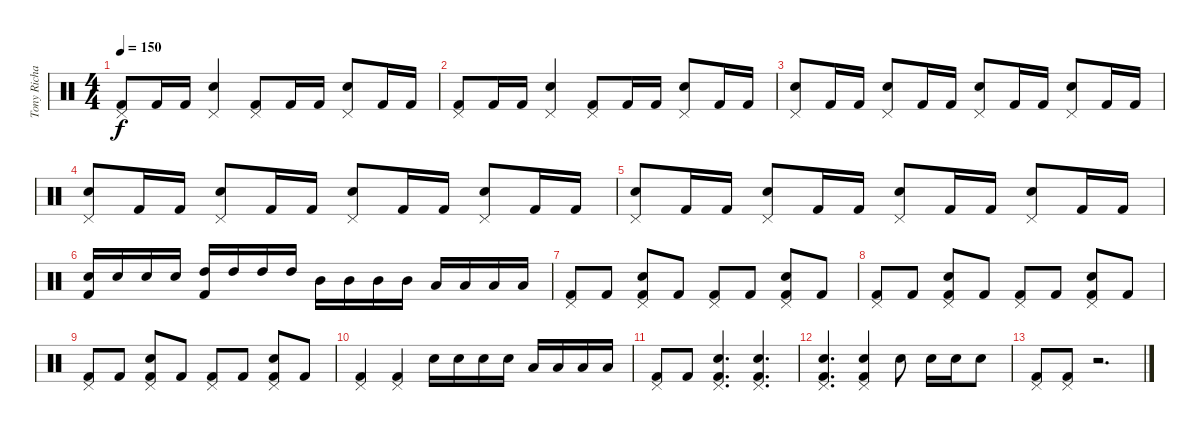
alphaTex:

\track ("Tony Richards (drums)" "Tony Richa") {instrument percussion}
\staff {score}
\articulation defaults
\ts (4 4)
\tempo 150
\clef neutral
\ks c
("Pedal Hi-Hat (hit)" "Kick (hit) 2").8{dy f} "Kick (hit) 2".16 "Kick (hit) 2".16 ("Pedal Hi-Hat (hit)" "Snare (hit) 2").4 ("Pedal Hi-Hat (hit)" "Kick (hit) 2").8 "Kick (hit) 2".16 "Kick (hit) 2".16 ("Pedal Hi-Hat (hit)" "Snare (hit) 2").8 "Kick (hit) 2".16 "Kick (hit) 2".16 |
("Pedal Hi-Hat (hit)" "Kick (hit) 2").8 "Kick (hit) 2".16 "Kick (hit) 2".16 ("Pedal Hi-Hat (hit)" "Snare (hit) 2").4 ("Pedal Hi-Hat (hit)" "Kick (hit) 2").8 "Kick (hit) 2".16 "Kick (hit) 2".16 ("Pedal Hi-Hat (hit)" "Snare (hit) 2").8 "Kick (hit) 2".16 "Kick (hit) 2".16 |
("Pedal Hi-Hat (hit)" "Snare (hit) 2").8 "Kick (hit) 2".16 "Kick (hit) 2".16 ("Pedal Hi-Hat (hit)" "Snare (hit) 2").8 "Kick (hit) 2".16 "Kick (hit) 2".16 ("Pedal Hi-Hat (hit)" "Snare (hit) 2").8 "Kick (hit) 2".16 "Kick (hit) 2".16 ("Pedal Hi-Hat (hit)" "Snare (hit) 2").8 "Kick (hit) 2".16 "Kick (hit) 2".16 |
("Pedal Hi-Hat (hit)" "Snare (hit) 2").8 "Kick (hit) 2".16 "Kick (hit) 2".16 ("Pedal Hi-Hat (hit)" "Snare (hit) 2").8 "Kick (hit) 2".16 "Kick (hit) 2".16 ("Pedal Hi-Hat (hit)" "Snare (hit) 2").8 "Kick (hit) 2".16 "Kick (hit) 2".16 ("Pedal Hi-Hat (hit)" "Snare (hit) 2").8 "Kick (hit) 2".16 "Kick (hit) 2".16 |
("Pedal Hi-Hat (hit)" "Snare (hit) 2").8 "Kick (hit) 2".16 "Kick (hit) 2".16 ("Pedal Hi-Hat (hit)" "Snare (hit) 2").8 "Kick (hit) 2".16 "Kick (hit) 2".16 ("Pedal Hi-Hat (hit)" "Snare (hit) 2").8 "Kick (hit) 2".16 "Kick (hit) 2".16 ("Pedal Hi-Hat (hit)" "Snare (hit) 2").8 "Kick (hit) 2".16 "Kick (hit) 2".16 |
("Snare (hit) 2" "Kick (hit) 2").16 "Snare (hit) 2".16 "Snare (hit) 2".16 "Snare (hit) 2".16 ("High Tom (hit)" "Kick (hit) 2").16 "High Tom (hit)".16 "High Tom (hit)".16 "High Tom (hit)".16 "Mid Tom (hit)".16 "Mid Tom (hit)".16 "Mid Tom (hit)".16 "Mid Tom (hit)".16 "Low Tom (hit)".16 "Low Tom (hit)".16 "Low Tom (hit)".16 "Low Tom (hit)".16 |
("Pedal Hi-Hat (hit)" "Kick (hit) 2").8 "Kick (hit) 2".8 ("Pedal Hi-Hat (hit)" "Snare (hit) 2" "Kick (hit) 2").8 "Kick (hit) 2".8 ("Pedal Hi-Hat (hit)" "Kick (hit) 2").8 "Kick (hit) 2".8 ("Pedal Hi-Hat (hit)" "Snare (hit) 2" "Kick (hit) 2").8 "Kick (hit) 2".8 |
("Pedal Hi-Hat (hit)" "Kick (hit) 2").8 "Kick (hit) 2".8 ("Pedal Hi-Hat (hit)" "Snare (hit) 2" "Kick (hit) 2").8 "Kick (hit) 2".8 ("Pedal Hi-Hat (hit)" "Kick (hit) 2").8 "Kick (hit) 2".8 ("Pedal Hi-Hat (hit)" "Snare (hit) 2" "Kick (hit) 2").8 "Kick (hit) 2".8 |
("Pedal Hi-Hat (hit)" "Kick (hit) 2").8 "Kick (hit) 2".8 ("Pedal Hi-Hat (hit)" "Snare (hit) 2" "Kick (hit) 2").8 "Kick (hit) 2".8 ("Pedal Hi-Hat (hit)" "Kick (hit) 2").8 "Kick (hit) 2".8 ("Pedal Hi-Hat (hit)" "Snare (hit) 2" "Kick (hit) 2").8 "Kick (hit) 2".8 |
("Pedal Hi-Hat (hit)" "Kick (hit) 2").4 ("Pedal Hi-Hat (hit)" "Kick (hit) 2").4 "Snare (hit) 2".16 "Snare (hit) 2".16 "Snare (hit) 2".16 "Snare (hit) 2".16 "Low Tom (hit)".16 "Low Tom (hit)".16 "Low Tom (hit)".16 "Low Tom (hit)".16 |
("Pedal Hi-Hat (hit)" "Kick (hit) 2").8 "Kick (hit) 2".8 ("Pedal Hi-Hat (hit)" "Snare (hit) 2" "Kick (hit) 2").4{d} ("Pedal Hi-Hat (hit)" "Snare (hit) 2" "Kick (hit) 2").4{d} |
("Pedal Hi-Hat (hit)" "Snare (hit) 2" "Kick (hit) 2").4{d} ("Pedal Hi-Hat (hit)" "Snare (hit) 2" "Kick (hit) 2").4 "Snare (hit) 2".8 "Snare (hit) 2".16 "Snare (hit) 2".16 "Snare (hit) 2".8 |
("Pedal Hi-Hat (hit)" "Kick (hit) 2").8 ("Pedal Hi-Hat (hit)" "Kick (hit) 2").8 r.2{d}
